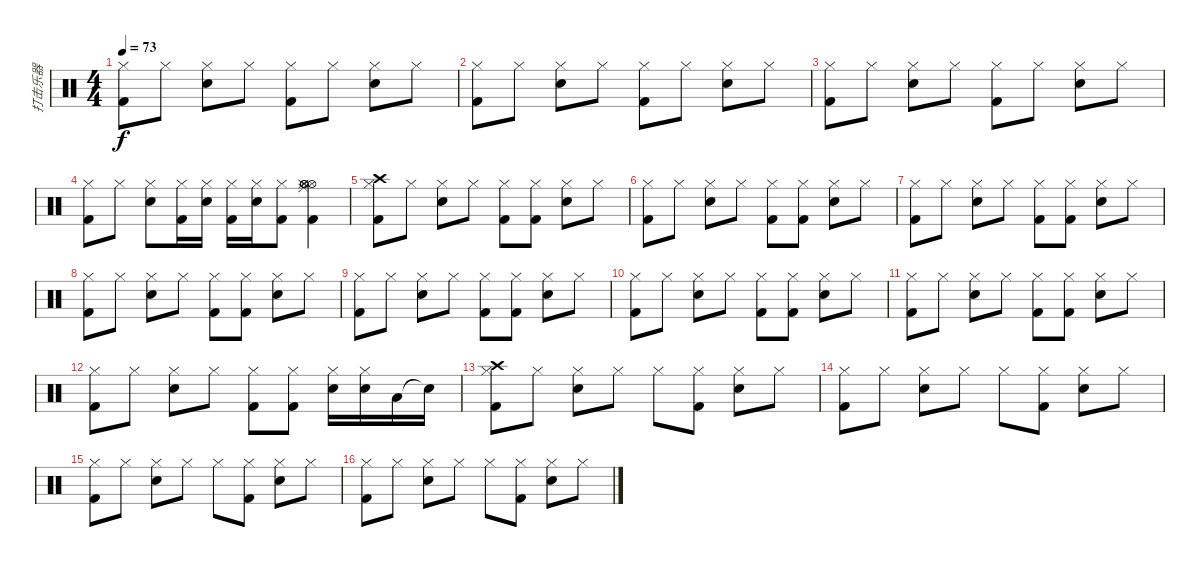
\track ("打击乐器" "打击乐器") {instrument percussion}
\staff {score}
\articulation defaults
\ts (4 4)
\tempo 73
\clef neutral
\ks c
("Hi-Hat (closed)" "Kick (hit) 2").8{dy f} "Hi-Hat (closed)".8 ("Hi-Hat (closed)" "Electric Snare (hit)").8 "Hi-Hat (closed)".8 ("Hi-Hat (closed)" "Kick (hit) 2").8 "Hi-Hat (closed)".8 ("Hi-Hat (closed)" "Electric Snare (hit)").8 "Hi-Hat (closed)".8 |
("Hi-Hat (closed)" "Kick (hit) 2").8 "Hi-Hat (closed)".8 ("Hi-Hat (closed)" "Electric Snare (hit)").8 "Hi-Hat (closed)".8 ("Hi-Hat (closed)" "Kick (hit) 2").8 "Hi-Hat (closed)".8 ("Hi-Hat (closed)" "Electric Snare (hit)").8 "Hi-Hat (closed)".8 |
("Hi-Hat (closed)" "Kick (hit) 2").8 "Hi-Hat (closed)".8 ("Hi-Hat (closed)" "Electric Snare (hit)").8 "Hi-Hat (closed)".8 ("Hi-Hat (closed)" "Kick (hit) 2").8 "Hi-Hat (closed)".8 ("Hi-Hat (closed)" "Electric Snare (hit)").8 "Hi-Hat (closed)".8 |
("Hi-Hat (closed)" "Kick (hit) 2").8 "Hi-Hat (closed)".8 ("Hi-Hat (closed)" "Electric Snare (hit)").8 ("Hi-Hat (closed)" "Kick (hit) 2").16 ("Electric Snare (hit)" "Hi-Hat (closed)").16 ("Hi-Hat (closed)" "Kick (hit) 2").16 ("Hi-Hat (closed)" "Electric Snare (hit)").16 ("Hi-Hat (closed)" "Kick (hit) 2").8 ("Hi-Hat (open)" "Hi-Hat (open)" "Hi-Hat (open)" "Hi-Hat (closed)" "Ride (middle)" "Kick (hit) 2").4 |
("Crash high (hit)" "Hi-Hat (closed)" "Kick (hit) 2").8 "Hi-Hat (closed)".8 ("Hi-Hat (closed)" "Electric Snare (hit)").8 "Hi-Hat (closed)".8 ("Hi-Hat (closed)" "Kick (hit) 2").8 ("Hi-Hat (closed)" "Kick (hit) 2").8 ("Hi-Hat (closed)" "Electric Snare (hit)").8 "Hi-Hat (closed)".8 |
("Hi-Hat (closed)" "Kick (hit) 2").8 "Hi-Hat (closed)".8 ("Hi-Hat (closed)" "Electric Snare (hit)").8 "Hi-Hat (closed)".8 ("Hi-Hat (closed)" "Kick (hit) 2").8 ("Hi-Hat (closed)" "Kick (hit) 2").8 ("Hi-Hat (closed)" "Electric Snare (hit)").8 "Hi-Hat (closed)".8 |
("Hi-Hat (closed)" "Kick (hit) 2").8 "Hi-Hat (closed)".8 ("Hi-Hat (closed)" "Electric Snare (hit)").8 "Hi-Hat (closed)".8 ("Hi-Hat (closed)" "Kick (hit) 2").8 ("Hi-Hat (closed)" "Kick (hit) 2").8 ("Hi-Hat (closed)" "Electric Snare (hit)").8 "Hi-Hat (closed)".8 |
("Hi-Hat (closed)" "Kick (hit) 2").8 "Hi-Hat (closed)".8 ("Hi-Hat (closed)" "Electric Snare (hit)").8 "Hi-Hat (closed)".8 ("Hi-Hat (closed)" "Kick (hit) 2").8 ("Hi-Hat (closed)" "Kick (hit) 2").8 ("Hi-Hat (closed)" "Electric Snare (hit)").8 "Hi-Hat (closed)".8 |
("Hi-Hat (closed)" "Kick (hit) 2").8 "Hi-Hat (closed)".8 ("Hi-Hat (closed)" "Electric Snare (hit)").8 "Hi-Hat (closed)".8 ("Hi-Hat (closed)" "Kick (hit) 2").8 ("Hi-Hat (closed)" "Kick (hit) 2").8 ("Hi-Hat (closed)" "Electric Snare (hit)").8 "Hi-Hat (closed)".8 |
("Hi-Hat (closed)" "Kick (hit) 2").8 "Hi-Hat (closed)".8 ("Hi-Hat (closed)" "Electric Snare (hit)").8 "Hi-Hat (closed)".8 ("Hi-Hat (closed)" "Kick (hit) 2").8 ("Hi-Hat (closed)" "Kick (hit) 2").8 ("Hi-Hat (closed)" "Electric Snare (hit)").8 "Hi-Hat (closed)".8 |
("Hi-Hat (closed)" "Kick (hit) 2").8 "Hi-Hat (closed)".8 ("Hi-Hat (closed)" "Electric Snare (hit)").8 "Hi-Hat (closed)".8 ("Hi-Hat (closed)" "Kick (hit) 2").8 ("Hi-Hat (closed)" "Kick (hit) 2").8 ("Hi-Hat (closed)" "Electric Snare (hit)").8 "Hi-Hat (closed)".8 |
("Hi-Hat (closed)" "Kick (hit) 2").8 "Hi-Hat (closed)".8 ("Hi-Hat (closed)" "Electric Snare (hit)").8 "Hi-Hat (closed)".8 ("Hi-Hat (closed)" "Kick (hit) 2").8 ("Hi-Hat (closed)" "Kick (hit) 2").8 ("Hi-Hat (closed)" "Electric Snare (hit)").16 ("Hi-Hat (closed)" "Electric Snare (hit)").16 "Low Floor Tom (hit)".16 "Snare (hit)"{t}.16 |
("Crash high (hit)" "Hi-Hat (closed)" "Kick (hit) 2").8 "Hi-Hat (closed)".8 ("Hi-Hat (closed)" "Electric Snare (hit)").8 "Hi-Hat (closed)".8 "Hi-Hat (closed)".8 ("Hi-Hat (closed)" "Kick (hit) 2").8 ("Hi-Hat (closed)" "Electric Snare (hit)").8 "Hi-Hat (closed)".8 |
("Hi-Hat (closed)" "Kick (hit) 2").8 "Hi-Hat (closed)".8 ("Hi-Hat (closed)" "Electric Snare (hit)").8 "Hi-Hat (closed)".8 "Hi-Hat (closed)".8 ("Hi-Hat (closed)" "Kick (hit) 2").8 ("Hi-Hat (closed)" "Electric Snare (hit)").8 "Hi-Hat (closed)".8 |
("Hi-Hat (closed)" "Kick (hit) 2").8 "Hi-Hat (closed)".8 ("Hi-Hat (closed)" "Electric Snare (hit)").8 "Hi-Hat (closed)".8 "Hi-Hat (closed)".8 ("Hi-Hat (closed)" "Kick (hit) 2").8 ("Hi-Hat (closed)" "Electric Snare (hit)").8 "Hi-Hat (closed)".8 |
("Hi-Hat (closed)" "Kick (hit) 2").8 "Hi-Hat (closed)".8 ("Hi-Hat (closed)" "Electric Snare (hit)").8 "Hi-Hat (closed)".8 "Hi-Hat (closed)".8 ("Hi-Hat (closed)" "Kick (hit) 2").8 ("Hi-Hat (closed)" "Electric Snare (hit)").8 "Hi-Hat (closed)".8
